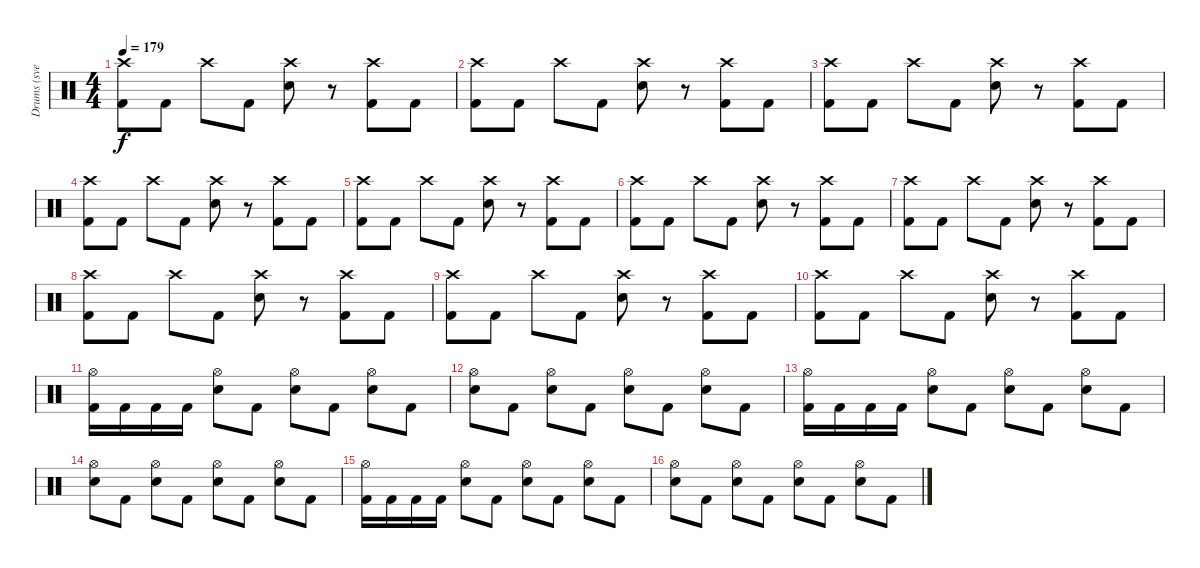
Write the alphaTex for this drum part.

\track ("Drums (svelle)" "Drums (sve") {instrument percussion}
\staff {score}
\articulation defaults
\ts (4 4)
\tempo 179
\clef neutral
\ks c
("Crash high (hit)" "Kick (hit) 2").8{dy f} "Kick (hit) 2".8 "Crash high (hit)".8 "Kick (hit) 2".8 ("Crash high (hit)" "Electric Snare (hit)").8 r.8 ("Crash high (hit)" "Kick (hit) 2").8 "Kick (hit) 2".8 |
("Crash high (hit)" "Kick (hit) 2").8 "Kick (hit) 2".8 "Crash high (hit)".8 "Kick (hit) 2".8 ("Crash high (hit)" "Electric Snare (hit)").8 r.8 ("Crash high (hit)" "Kick (hit) 2").8 "Kick (hit) 2".8 |
("Crash high (hit)" "Kick (hit) 2").8 "Kick (hit) 2".8 "Crash high (hit)".8 "Kick (hit) 2".8 ("Crash high (hit)" "Electric Snare (hit)").8 r.8 ("Crash high (hit)" "Kick (hit) 2").8 "Kick (hit) 2".8 |
("Crash high (hit)" "Kick (hit) 2").8 "Kick (hit) 2".8 "Crash high (hit)".8 "Kick (hit) 2".8 ("Crash high (hit)" "Electric Snare (hit)").8 r.8 ("Crash high (hit)" "Kick (hit) 2").8 "Kick (hit) 2".8 |
("Crash high (hit)" "Kick (hit) 2").8 "Kick (hit) 2".8 "Crash high (hit)".8 "Kick (hit) 2".8 ("Crash high (hit)" "Electric Snare (hit)").8 r.8 ("Crash high (hit)" "Kick (hit) 2").8 "Kick (hit) 2".8 |
("Crash high (hit)" "Kick (hit) 2").8 "Kick (hit) 2".8 "Crash high (hit)".8 "Kick (hit) 2".8 ("Crash high (hit)" "Electric Snare (hit)").8 r.8 ("Crash high (hit)" "Kick (hit) 2").8 "Kick (hit) 2".8 |
("Crash high (hit)" "Kick (hit) 2").8 "Kick (hit) 2".8 "Crash high (hit)".8 "Kick (hit) 2".8 ("Crash high (hit)" "Electric Snare (hit)").8 r.8 ("Crash high (hit)" "Kick (hit) 2").8 "Kick (hit) 2".8 |
("Crash high (hit)" "Kick (hit) 2").8 "Kick (hit) 2".8 "Crash high (hit)".8 "Kick (hit) 2".8 ("Crash high (hit)" "Electric Snare (hit)").8 r.8 ("Crash high (hit)" "Kick (hit) 2").8 "Kick (hit) 2".8 |
("Crash high (hit)" "Kick (hit) 2").8 "Kick (hit) 2".8 "Crash high (hit)".8 "Kick (hit) 2".8 ("Crash high (hit)" "Electric Snare (hit)").8 r.8 ("Crash high (hit)" "Kick (hit) 2").8 "Kick (hit) 2".8 |
("Crash high (hit)" "Kick (hit) 2").8 "Kick (hit) 2".8 "Crash high (hit)".8 "Kick (hit) 2".8 ("Crash high (hit)" "Electric Snare (hit)").8 r.8 ("Crash high (hit)" "Kick (hit) 2").8 "Kick (hit) 2".8 |
("Hi-Hat (open)" "Kick (hit) 2").16 "Kick (hit) 2".16 "Kick (hit) 2".16 "Kick (hit) 2".16 ("Hi-Hat (open)" "Electric Snare (hit)").8 "Kick (hit) 2".8 ("Hi-Hat (open)" "Electric Snare (hit)").8 "Kick (hit) 2".8 ("Hi-Hat (open)" "Electric Snare (hit)").8 "Kick (hit) 2".8 |
("Hi-Hat (open)" "Electric Snare (hit)").8 "Kick (hit) 2".8 ("Hi-Hat (open)" "Electric Snare (hit)").8 "Kick (hit) 2".8 ("Hi-Hat (open)" "Electric Snare (hit)").8 "Kick (hit) 2".8 ("Hi-Hat (open)" "Electric Snare (hit)").8 "Kick (hit) 2".8 |
("Hi-Hat (open)" "Kick (hit) 2").16 "Kick (hit) 2".16 "Kick (hit) 2".16 "Kick (hit) 2".16 ("Hi-Hat (open)" "Electric Snare (hit)").8 "Kick (hit) 2".8 ("Hi-Hat (open)" "Electric Snare (hit)").8 "Kick (hit) 2".8 ("Hi-Hat (open)" "Electric Snare (hit)").8 "Kick (hit) 2".8 |
("Hi-Hat (open)" "Electric Snare (hit)").8 "Kick (hit) 2".8 ("Hi-Hat (open)" "Electric Snare (hit)").8 "Kick (hit) 2".8 ("Hi-Hat (open)" "Electric Snare (hit)").8 "Kick (hit) 2".8 ("Hi-Hat (open)" "Electric Snare (hit)").8 "Kick (hit) 2".8 |
("Hi-Hat (open)" "Kick (hit) 2").16 "Kick (hit) 2".16 "Kick (hit) 2".16 "Kick (hit) 2".16 ("Hi-Hat (open)" "Electric Snare (hit)").8 "Kick (hit) 2".8 ("Hi-Hat (open)" "Electric Snare (hit)").8 "Kick (hit) 2".8 ("Hi-Hat (open)" "Electric Snare (hit)").8 "Kick (hit) 2".8 |
("Hi-Hat (open)" "Electric Snare (hit)").8 "Kick (hit) 2".8 ("Hi-Hat (open)" "Electric Snare (hit)").8 "Kick (hit) 2".8 ("Hi-Hat (open)" "Electric Snare (hit)").8 "Kick (hit) 2".8 ("Hi-Hat (open)" "Electric Snare (hit)").8 "Kick (hit) 2".8
